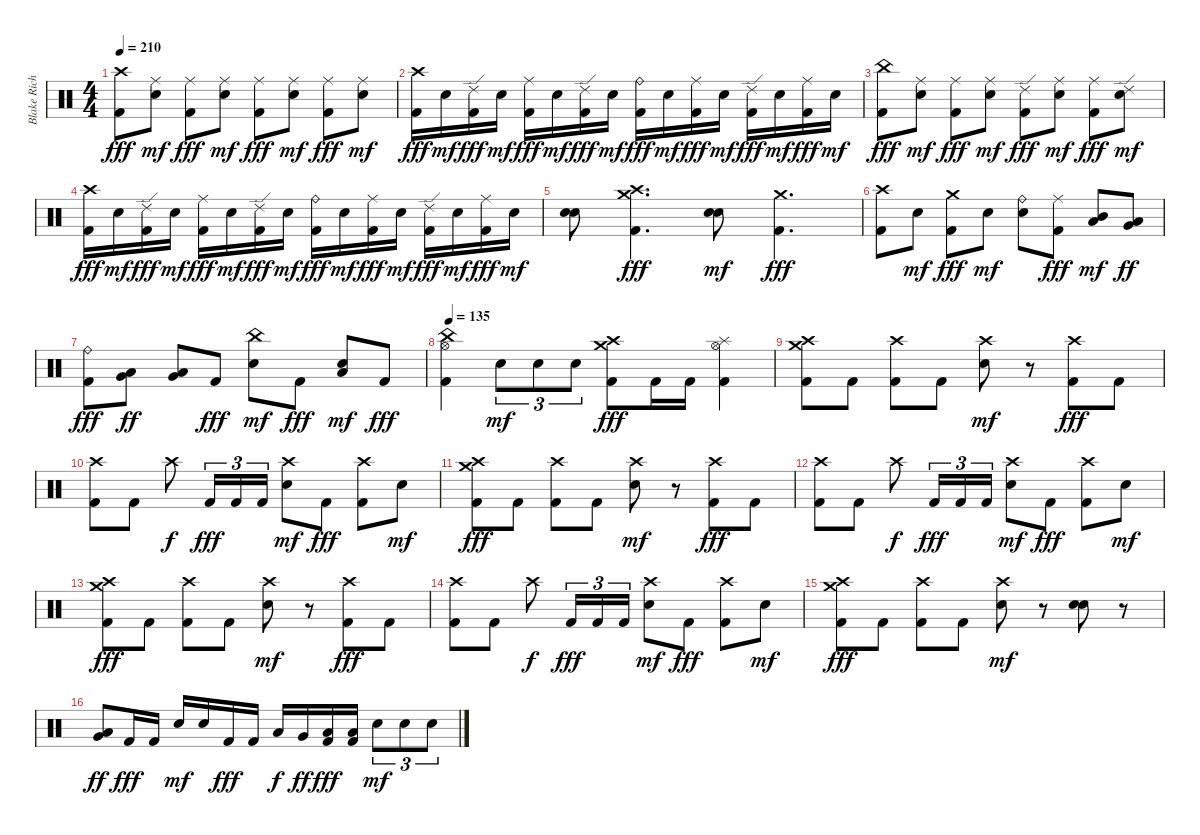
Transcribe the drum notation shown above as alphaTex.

\track ("Blake Richardson" "Blake Rich") {instrument percussion}
\staff {score}
\articulation defaults
\ts (4 4)
\tempo 210
\clef neutral
\ks c
("Crash high (hit)" "Kick (hit) 2").8{dy fff} ("Ride (middle)" "Electric Snare (hit)").8{dy mf} ("Ride (middle)" "Kick (hit) 2").8{dy fff} ("Ride (middle)" "Electric Snare (hit)").8{dy mf} ("Ride (middle)" "Kick (hit) 2").8{dy fff} ("Ride (middle)" "Electric Snare (hit)").8{dy mf} ("Ride (middle)" "Kick (hit) 2").8{dy fff} ("Ride (middle)" "Electric Snare (hit)").8{dy mf} |
("Crash high (hit)" "Kick (hit) 2").16{dy fff} "Electric Snare (hit)".16{dy mf} ("Ride (edge) 2" "Kick (hit) 2").16{dy fff} "Electric Snare (hit)".16{dy mf} ("Ride (middle)" "Kick (hit) 2").16{dy fff} "Electric Snare (hit)".16{dy mf} ("Ride (edge) 2" "Kick (hit) 2").16{dy fff} "Electric Snare (hit)".16{dy mf} ("Ride (bell)" "Kick (hit) 2").16{dy fff} "Electric Snare (hit)".16{dy mf} ("Ride (middle)" "Kick (hit) 2").16{dy fff} "Electric Snare (hit)".16{dy mf} ("Ride (edge) 2" "Kick (hit) 2").16{dy fff} "Electric Snare (hit)".16{dy mf} ("Ride (middle)" "Kick (hit) 2").16{dy fff} "Electric Snare (hit)".16{dy mf} |
("China (hit)" "Kick (hit) 2").8{dy fff} ("Ride (middle)" "Electric Snare (hit)").8{dy mf} ("Ride (middle)" "Kick (hit) 2").8{dy fff} ("Ride (middle)" "Electric Snare (hit)").8{dy mf} ("Ride (edge) 2" "Kick (hit) 2").8{dy fff} ("Ride (middle)" "Electric Snare (hit)").8{dy mf} ("Ride (middle)" "Kick (hit) 2").8{dy fff} ("Ride (edge) 2" "Electric Snare (hit)").8{dy mf} |
("Crash high (hit)" "Kick (hit) 2").16{dy fff} "Electric Snare (hit)".16{dy mf} ("Ride (edge) 2" "Kick (hit) 2").16{dy fff} "Electric Snare (hit)".16{dy mf} ("Ride (middle)" "Kick (hit) 2").16{dy fff} "Electric Snare (hit)".16{dy mf} ("Ride (edge) 2" "Kick (hit) 2").16{dy fff} "Electric Snare (hit)".16{dy mf} ("Ride (bell)" "Kick (hit) 2").16{dy fff} "Electric Snare (hit)".16{dy mf} ("Ride (middle)" "Kick (hit) 2").16{dy fff} "Electric Snare (hit)".16{dy mf} ("Ride (edge) 2" "Kick (hit) 2").16{dy fff} "Electric Snare (hit)".16{dy mf} ("Ride (middle)" "Kick (hit) 2").16{dy fff} "Electric Snare (hit)".16{dy mf} |
("Electric Snare (hit)" "Electric Snare (hit)").8{bu 480} ("Crash high (hit)" "Crash medium (hit)" "Kick (hit) 2").4{d dy fff} ("Electric Snare (hit)" "Electric Snare (hit)").8{bu 480 dy mf} ("Crash medium (hit)" "Kick (hit) 2").4{d dy fff} |
("Crash high (hit)" "Kick (hit) 2").8 "Electric Snare (hit)".8{dy mf} ("Crash medium (hit)" "Kick (hit) 2").8{dy fff} "Electric Snare (hit)".8{dy mf} ("Ride (bell)" "Electric Snare (hit)").8 ("Ride (middle)" "Kick (hit) 2").8{dy fff} ("Low Tom (hit)" "Mid Tom (hit)").8{dy mf} ("Very Low Tom (hit)" "Low Tom (hit)").8{dy ff} |
("Ride (bell)" "Kick (hit) 2").8{dy fff} ("Very Low Tom (hit)" "Low Tom (hit)").8{dy ff} ("Low Floor Tom (hit)" "Very Low Tom (hit)").8 "Kick (hit) 2".8{dy fff} ("China (hit)" "Electric Snare (hit)").8{dy mf} "Kick (hit) 2".8{dy fff} ("Low Floor Tom (hit)" "Electric Snare (hit)").8{dy mf} "Kick (hit) 2".8{dy fff} |
\tempo 135
("China (hit)" "Hi-Hat (open)" "Kick (hit) 2").4 "Electric Snare (hit)".8{tu (3 2) dy mf} "Electric Snare (hit)".8{tu (3 2)} "Electric Snare (hit)".8{tu (3 2)} ("Crash high (hit)" "Crash medium (hit)" "Kick (hit) 2").8{dy fff} "Kick (hit) 2".16 "Kick (hit) 2".16 ("Splash (hit)" "Hi-Hat (open)" "Kick (hit) 2").4 |
("Crash medium (hit)" "Crash high (hit)" "Kick (hit) 2").8 "Kick (hit) 2".8 ("Crash high (hit)" "Kick (hit) 2").8 "Kick (hit) 2".8 ("Crash high (hit)" "Electric Snare (hit)").8{dy mf} r.8 ("Crash high (hit)" "Kick (hit) 2").8{dy fff} "Kick (hit) 2".8 |
("Crash high (hit)" "Kick (hit) 2").8 "Kick (hit) 2".8 "Crash high (hit)".8{dy f} "Kick (hit) 2".16{tu (3 2) dy fff} "Kick (hit) 2".16{tu (3 2)} "Kick (hit) 2".16{tu (3 2)} ("Crash high (hit)" "Electric Snare (hit)").8{dy mf} "Kick (hit) 2".8{dy fff} ("Crash high (hit)" "Kick (hit) 2").8 "Electric Snare (hit)".8{dy mf} |
("Crash medium (hit)" "Crash high (hit)" "Kick (hit) 2").8{dy fff} "Kick (hit) 2".8 ("Crash high (hit)" "Kick (hit) 2").8 "Kick (hit) 2".8 ("Crash high (hit)" "Electric Snare (hit)").8{dy mf} r.8 ("Crash high (hit)" "Kick (hit) 2").8{dy fff} "Kick (hit) 2".8 |
("Crash high (hit)" "Kick (hit) 2").8 "Kick (hit) 2".8 "Crash high (hit)".8{dy f} "Kick (hit) 2".16{tu (3 2) dy fff} "Kick (hit) 2".16{tu (3 2)} "Kick (hit) 2".16{tu (3 2)} ("Crash high (hit)" "Electric Snare (hit)").8{dy mf} "Kick (hit) 2".8{dy fff} ("Crash high (hit)" "Kick (hit) 2").8 "Electric Snare (hit)".8{dy mf} |
("Crash medium (hit)" "Crash high (hit)" "Kick (hit) 2").8{dy fff} "Kick (hit) 2".8 ("Crash high (hit)" "Kick (hit) 2").8 "Kick (hit) 2".8 ("Crash high (hit)" "Electric Snare (hit)").8{dy mf} r.8 ("Crash high (hit)" "Kick (hit) 2").8{dy fff} "Kick (hit) 2".8 |
("Crash high (hit)" "Kick (hit) 2").8 "Kick (hit) 2".8 "Crash high (hit)".8{dy f} "Kick (hit) 2".16{tu (3 2) dy fff} "Kick (hit) 2".16{tu (3 2)} "Kick (hit) 2".16{tu (3 2)} ("Crash high (hit)" "Electric Snare (hit)").8{dy mf} "Kick (hit) 2".8{dy fff} ("Crash high (hit)" "Kick (hit) 2").8 "Electric Snare (hit)".8{dy mf} |
("Crash medium (hit)" "Crash high (hit)" "Kick (hit) 2").8{dy fff} "Kick (hit) 2".8 ("Crash high (hit)" "Kick (hit) 2").8 "Kick (hit) 2".8 ("Crash high (hit)" "Electric Snare (hit)").8{dy mf} r.8 ("Electric Snare (hit)" "Electric Snare (hit)").8{bu 480} r.8 |
("Low Floor Tom (hit)" "Very Low Tom (hit)").8{bu 60 dy ff} "Kick (hit) 2".16{dy fff} "Kick (hit) 2".16 "Electric Snare (hit)".16{dy mf} "Electric Snare (hit)".16 "Kick (hit) 2".16{dy fff} "Kick (hit) 2".16 "Low Tom (hit)".16{dy f} "Very Low Tom (hit)".16{dy ff} ("Low Floor Tom (hit)" "Kick (hit) 2").16{dy fff} ("Low Floor Tom (hit)" "Kick (hit) 2").16 "Electric Snare (hit)".8{tu (3 2) dy mf} "Electric Snare (hit)".8{tu (3 2)} "Electric Snare (hit)".8{tu (3 2)}
